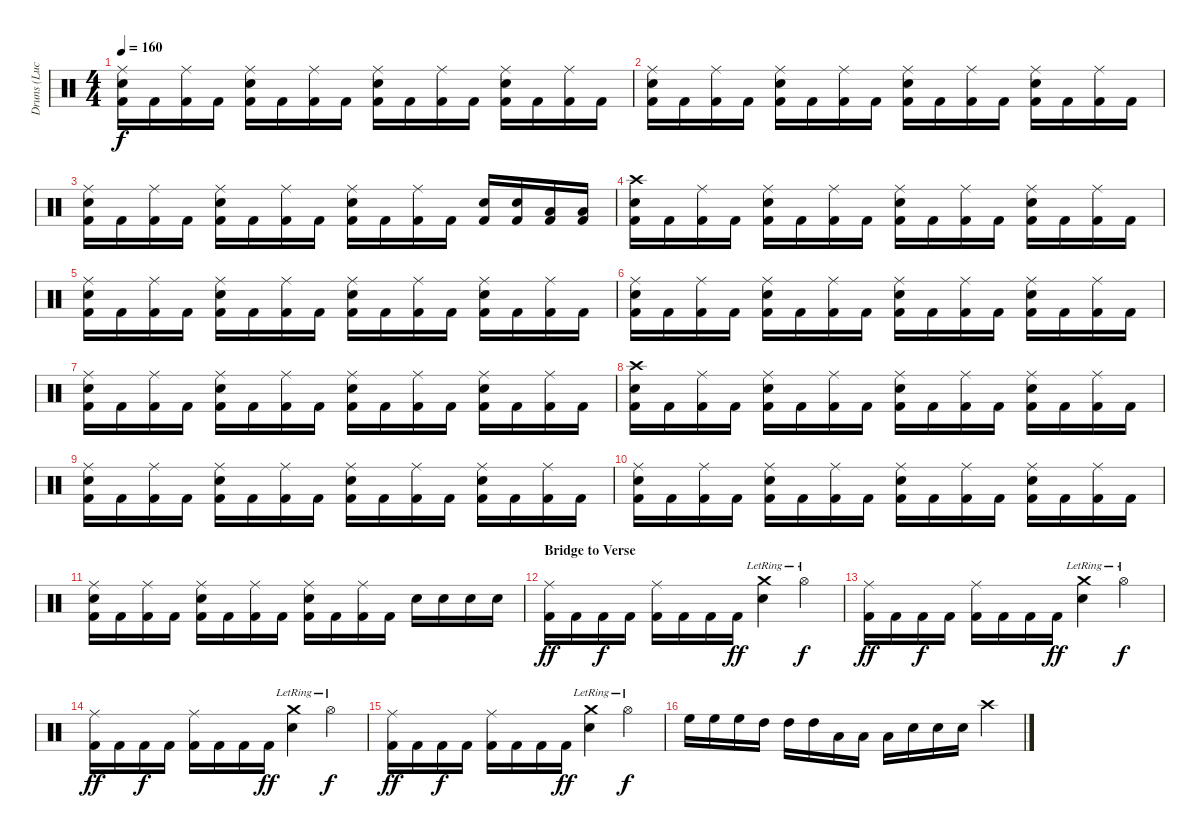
\track ("Druns (Lucas Zigarti)" "Druns (Luc") {instrument percussion}
\staff {score}
\articulation defaults
\ts (4 4)
\tempo 160
\clef neutral
\ks c
("Electric Snare (hit)" "Ride (middle)" "Kick (hit) 2").16{dy f} "Kick (hit) 2".16 ("Ride (middle)" "Kick (hit) 2").16 "Kick (hit) 2".16 ("Electric Snare (hit)" "Ride (middle)" "Kick (hit) 2").16 "Kick (hit) 2".16 ("Ride (middle)" "Kick (hit) 2").16 "Kick (hit) 2".16 ("Electric Snare (hit)" "Ride (middle)" "Kick (hit) 2").16 "Kick (hit) 2".16 ("Ride (middle)" "Kick (hit) 2").16 "Kick (hit) 2".16 ("Electric Snare (hit)" "Ride (middle)" "Kick (hit) 2").16 "Kick (hit) 2".16 ("Ride (middle)" "Kick (hit) 2").16 "Kick (hit) 2".16 |
("Electric Snare (hit)" "Ride (middle)" "Kick (hit) 2").16 "Kick (hit) 2".16 ("Ride (middle)" "Kick (hit) 2").16 "Kick (hit) 2".16 ("Electric Snare (hit)" "Ride (middle)" "Kick (hit) 2").16 "Kick (hit) 2".16 ("Ride (middle)" "Kick (hit) 2").16 "Kick (hit) 2".16 ("Electric Snare (hit)" "Ride (middle)" "Kick (hit) 2").16 "Kick (hit) 2".16 ("Ride (middle)" "Kick (hit) 2").16 "Kick (hit) 2".16 ("Electric Snare (hit)" "Ride (middle)" "Kick (hit) 2").16 "Kick (hit) 2".16 ("Ride (middle)" "Kick (hit) 2").16 "Kick (hit) 2".16 |
("Electric Snare (hit)" "Ride (middle)" "Kick (hit) 2").16 "Kick (hit) 2".16 ("Ride (middle)" "Kick (hit) 2").16 "Kick (hit) 2".16 ("Electric Snare (hit)" "Ride (middle)" "Kick (hit) 2").16 "Kick (hit) 2".16 ("Ride (middle)" "Kick (hit) 2").16 "Kick (hit) 2".16 ("Electric Snare (hit)" "Ride (middle)" "Kick (hit) 2").16 "Kick (hit) 2".16 ("Ride (middle)" "Kick (hit) 2").16 "Kick (hit) 2".16 ("Electric Snare (hit)" "Kick (hit) 2").16 ("Electric Snare (hit)" "Kick (hit) 2").16 ("Low Floor Tom (hit)" "Kick (hit) 2").16 ("Low Floor Tom (hit)" "Kick (hit) 2").16 |
("Electric Snare (hit)" "Crash high (hit)" "Kick (hit) 2").16 "Kick (hit) 2".16 ("Ride (middle)" "Kick (hit) 2").16 "Kick (hit) 2".16 ("Electric Snare (hit)" "Ride (middle)" "Kick (hit) 2").16 "Kick (hit) 2".16 ("Ride (middle)" "Kick (hit) 2").16 "Kick (hit) 2".16 ("Electric Snare (hit)" "Ride (middle)" "Kick (hit) 2").16 "Kick (hit) 2".16 ("Ride (middle)" "Kick (hit) 2").16 "Kick (hit) 2".16 ("Electric Snare (hit)" "Ride (middle)" "Kick (hit) 2").16 "Kick (hit) 2".16 ("Ride (middle)" "Kick (hit) 2").16 "Kick (hit) 2".16 |
("Electric Snare (hit)" "Ride (middle)" "Kick (hit) 2").16 "Kick (hit) 2".16 ("Ride (middle)" "Kick (hit) 2").16 "Kick (hit) 2".16 ("Electric Snare (hit)" "Ride (middle)" "Kick (hit) 2").16 "Kick (hit) 2".16 ("Ride (middle)" "Kick (hit) 2").16 "Kick (hit) 2".16 ("Electric Snare (hit)" "Ride (middle)" "Kick (hit) 2").16 "Kick (hit) 2".16 ("Ride (middle)" "Kick (hit) 2").16 "Kick (hit) 2".16 ("Electric Snare (hit)" "Ride (middle)" "Kick (hit) 2").16 "Kick (hit) 2".16 ("Ride (middle)" "Kick (hit) 2").16 "Kick (hit) 2".16 |
("Electric Snare (hit)" "Ride (middle)" "Kick (hit) 2").16 "Kick (hit) 2".16 ("Ride (middle)" "Kick (hit) 2").16 "Kick (hit) 2".16 ("Electric Snare (hit)" "Ride (middle)" "Kick (hit) 2").16 "Kick (hit) 2".16 ("Ride (middle)" "Kick (hit) 2").16 "Kick (hit) 2".16 ("Electric Snare (hit)" "Ride (middle)" "Kick (hit) 2").16 "Kick (hit) 2".16 ("Ride (middle)" "Kick (hit) 2").16 "Kick (hit) 2".16 ("Electric Snare (hit)" "Ride (middle)" "Kick (hit) 2").16 "Kick (hit) 2".16 ("Ride (middle)" "Kick (hit) 2").16 "Kick (hit) 2".16 |
("Electric Snare (hit)" "Ride (middle)" "Kick (hit) 2").16 "Kick (hit) 2".16 ("Ride (middle)" "Kick (hit) 2").16 "Kick (hit) 2".16 ("Electric Snare (hit)" "Ride (middle)" "Kick (hit) 2").16 "Kick (hit) 2".16 ("Ride (middle)" "Kick (hit) 2").16 "Kick (hit) 2".16 ("Electric Snare (hit)" "Ride (middle)" "Kick (hit) 2").16 "Kick (hit) 2".16 ("Ride (middle)" "Kick (hit) 2").16 "Kick (hit) 2".16 ("Electric Snare (hit)" "Ride (middle)" "Kick (hit) 2").16 "Kick (hit) 2".16 ("Ride (middle)" "Kick (hit) 2").16 "Kick (hit) 2".16 |
("Electric Snare (hit)" "Crash high (hit)" "Kick (hit) 2").16 "Kick (hit) 2".16 ("Ride (middle)" "Kick (hit) 2").16 "Kick (hit) 2".16 ("Electric Snare (hit)" "Ride (middle)" "Kick (hit) 2").16 "Kick (hit) 2".16 ("Ride (middle)" "Kick (hit) 2").16 "Kick (hit) 2".16 ("Electric Snare (hit)" "Ride (middle)" "Kick (hit) 2").16 "Kick (hit) 2".16 ("Ride (middle)" "Kick (hit) 2").16 "Kick (hit) 2".16 ("Electric Snare (hit)" "Ride (middle)" "Kick (hit) 2").16 "Kick (hit) 2".16 ("Ride (middle)" "Kick (hit) 2").16 "Kick (hit) 2".16 |
("Electric Snare (hit)" "Ride (middle)" "Kick (hit) 2").16 "Kick (hit) 2".16 ("Ride (middle)" "Kick (hit) 2").16 "Kick (hit) 2".16 ("Electric Snare (hit)" "Ride (middle)" "Kick (hit) 2").16 "Kick (hit) 2".16 ("Ride (middle)" "Kick (hit) 2").16 "Kick (hit) 2".16 ("Electric Snare (hit)" "Ride (middle)" "Kick (hit) 2").16 "Kick (hit) 2".16 ("Ride (middle)" "Kick (hit) 2").16 "Kick (hit) 2".16 ("Electric Snare (hit)" "Ride (middle)" "Kick (hit) 2").16 "Kick (hit) 2".16 ("Ride (middle)" "Kick (hit) 2").16 "Kick (hit) 2".16 |
("Electric Snare (hit)" "Ride (middle)" "Kick (hit) 2").16 "Kick (hit) 2".16 ("Ride (middle)" "Kick (hit) 2").16 "Kick (hit) 2".16 ("Electric Snare (hit)" "Ride (middle)" "Kick (hit) 2").16 "Kick (hit) 2".16 ("Ride (middle)" "Kick (hit) 2").16 "Kick (hit) 2".16 ("Electric Snare (hit)" "Ride (middle)" "Kick (hit) 2").16 "Kick (hit) 2".16 ("Ride (middle)" "Kick (hit) 2").16 "Kick (hit) 2".16 ("Electric Snare (hit)" "Ride (middle)" "Kick (hit) 2").16 "Kick (hit) 2".16 ("Ride (middle)" "Kick (hit) 2").16 "Kick (hit) 2".16 |
("Electric Snare (hit)" "Ride (middle)" "Kick (hit) 2").16 "Kick (hit) 2".16 ("Ride (middle)" "Kick (hit) 2").16 "Kick (hit) 2".16 ("Electric Snare (hit)" "Ride (middle)" "Kick (hit) 2").16 "Kick (hit) 2".16 ("Ride (middle)" "Kick (hit) 2").16 "Kick (hit) 2".16 ("Electric Snare (hit)" "Ride (middle)" "Kick (hit) 2").16 "Kick (hit) 2".16 ("Ride (middle)" "Kick (hit) 2").16 "Kick (hit) 2".16 "Electric Snare (hit)".16 "Electric Snare (hit)".16 "Electric Snare (hit)".16 "Electric Snare (hit)".16 |
\section ("" "Bridge to Verse")
("Ride (middle)" "Kick (hit) 2").16{dy ff} "Kick (hit) 2".16 "Kick (hit) 2".16{dy f} "Kick (hit) 2".16 ("Ride (middle)" "Kick (hit) 2").16 "Kick (hit) 2".16 "Kick (hit) 2".16 "Kick (hit) 2".16{dy ff} ("Crash medium (hit)"{lr} "Snare (hit) 2").4 "Hi-Hat (open)"{lr}.4{dy f} |
("Ride (middle)" "Kick (hit) 2").16{dy ff} "Kick (hit) 2".16 "Kick (hit) 2".16{dy f} "Kick (hit) 2".16 ("Ride (middle)" "Kick (hit) 2").16 "Kick (hit) 2".16 "Kick (hit) 2".16 "Kick (hit) 2".16{dy ff} ("Crash medium (hit)"{lr} "Snare (hit) 2").4 "Hi-Hat (open)"{lr}.4{dy f} |
("Ride (middle)" "Kick (hit) 2").16{dy ff} "Kick (hit) 2".16 "Kick (hit) 2".16{dy f} "Kick (hit) 2".16 ("Ride (middle)" "Kick (hit) 2").16 "Kick (hit) 2".16 "Kick (hit) 2".16 "Kick (hit) 2".16{dy ff} ("Crash medium (hit)"{lr} "Snare (hit) 2").4 "Hi-Hat (open)"{lr}.4{dy f} |
("Ride (middle)" "Kick (hit) 2").16{dy ff} "Kick (hit) 2".16 "Kick (hit) 2".16{dy f} "Kick (hit) 2".16 ("Ride (middle)" "Kick (hit) 2").16 "Kick (hit) 2".16 "Kick (hit) 2".16 "Kick (hit) 2".16{dy ff} ("Crash medium (hit)"{lr} "Snare (hit) 2").4 "Hi-Hat (open)"{lr}.4{dy f} |
"High Floor Tom (hit)".16 "High Floor Tom (hit)".16 "High Floor Tom (hit)".16 "High Tom (hit)".16 "High Tom (hit)".16 "High Tom (hit)".16 "Low Tom (hit)".16 "Low Tom (hit)".16 "Low Tom (hit)".16 "Electric Snare (hit)".16 "Electric Snare (hit)".16 "Electric Snare (hit)".16 "Crash high (hit)".4
